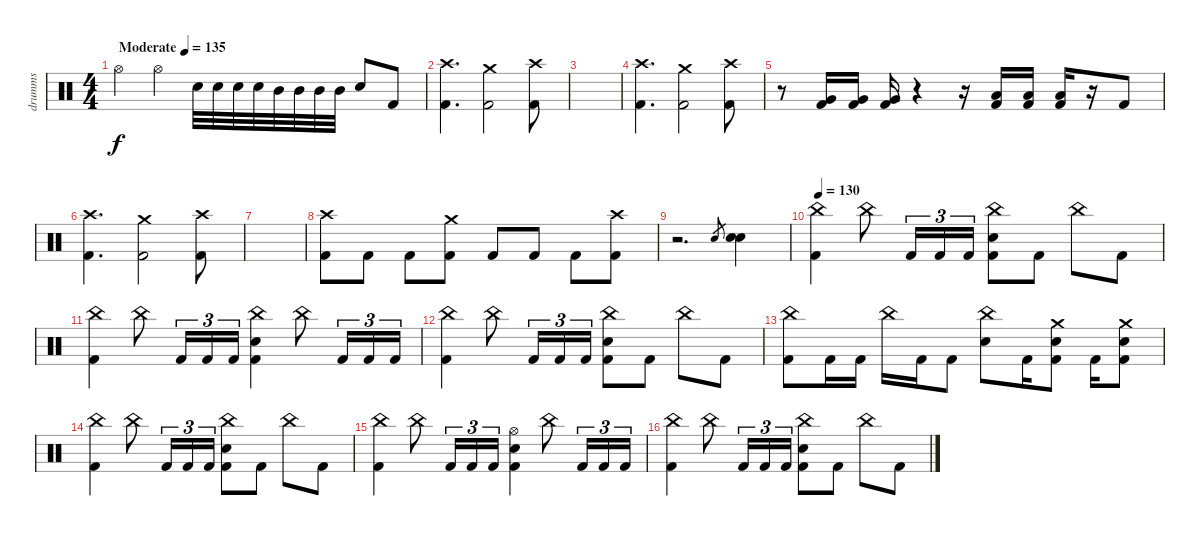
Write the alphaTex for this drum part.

\track ("drumms" "drumms") {instrument percussion}
\staff {score}
\articulation defaults
\ts (4 4)
\tempo (135 "Moderate")
\tempo 131
\tempo (135 "Moderate")
\clef neutral
\ks c "Hi-Hat (open)".4{dy f} "Hi-Hat (open)".4 "Electric Snare (hit)".32 "Electric Snare (hit)".32 "Electric Snare (hit)".32 "Electric Snare (hit)".32 "Mid Tom (hit)".32 "Mid Tom (hit)".32 "Mid Tom (hit)".32 "Mid Tom (hit)".32 "Electric Snare (hit)".8 "Kick (hit) 2".8
|
("Crash high (hit)" "Kick (hit) 2").4{d} ("Crash medium (hit)" "Kick (hit) 2").2 ("Crash high (hit)" "Kick (hit) 2").8 |
|
("Crash high (hit)" "Kick (hit) 2").4{d} ("Crash medium (hit)" "Kick (hit) 2").2 ("Crash high (hit)" "Kick (hit) 2").8 |
r.8 ("Very Low Tom (hit)" "Kick (hit) 2").16 ("Very Low Tom (hit)" "Kick (hit) 2").16 ("Very Low Tom (hit)" "Kick (hit) 2").16 r.4 r.16 ("Low Floor Tom (hit)" "Kick (hit) 2").16 ("Low Floor Tom (hit)" "Kick (hit) 2").16 ("Low Floor Tom (hit)" "Kick (hit) 2").16 r.16 "Kick (hit) 2".8 |
("Crash high (hit)" "Kick (hit) 2").4{d} ("Crash medium (hit)" "Kick (hit) 2").2 ("Crash high (hit)" "Kick (hit) 2").8 |
|
("Crash high (hit)" "Kick (hit) 2").8 "Kick (hit) 2".8 "Kick (hit) 2".8 ("Crash medium (hit)" "Kick (hit) 2").8 "Kick (hit) 2".8 "Kick (hit) 2".8 "Kick (hit) 2".8 ("Crash high (hit)" "Kick (hit) 2").8 |
r.2{d} "Electric Snare (hit)"{h}.8{gr} ("Electric Snare (hit)" "Electric Snare (hit)").4 |
\tempo 130
("China (hit)" "Kick (hit) 2").4 "China (hit)".8 "Kick (hit) 2".16{tu (3 2)} "Kick (hit) 2".16{tu (3 2)} "Kick (hit) 2".16{tu (3 2)} ("China (hit)" "Electric Snare (hit)" "Kick (hit) 2").8 "Kick (hit) 2".8 "China (hit)".8 "Kick (hit) 2".8 |
("China (hit)" "Kick (hit) 2").4 "China (hit)".8 "Kick (hit) 2".16{tu (3 2)} "Kick (hit) 2".16{tu (3 2)} "Kick (hit) 2".16{tu (3 2)} ("China (hit)" "Electric Snare (hit)" "Kick (hit) 2").4 "China (hit)".8 "Kick (hit) 2".16{tu (3 2)} "Kick (hit) 2".16{tu (3 2)} "Kick (hit) 2".16{tu (3 2)} |
("China (hit)" "Kick (hit) 2").4 "China (hit)".8 "Kick (hit) 2".16{tu (3 2)} "Kick (hit) 2".16{tu (3 2)} "Kick (hit) 2".16{tu (3 2)} ("China (hit)" "Electric Snare (hit)" "Kick (hit) 2").8 "Kick (hit) 2".8 "China (hit)".8 "Kick (hit) 2".8 |
("China (hit)" "Kick (hit) 2").8 "Kick (hit) 2".16 "Kick (hit) 2".16 "China (hit)".16 "Kick (hit) 2".16 "Kick (hit) 2".8 ("China (hit)" "Electric Snare (hit)").8 "Kick (hit) 2".16 ("Crash medium (hit)" "Electric Snare (hit)" "Kick (hit) 2").8 "Kick (hit) 2".16 ("Crash medium (hit)" "Electric Snare (hit)" "Kick (hit) 2").8 |
("China (hit)" "Kick (hit) 2").4 "China (hit)".8 "Kick (hit) 2".16{tu (3 2)} "Kick (hit) 2".16{tu (3 2)} "Kick (hit) 2".16{tu (3 2)} ("China (hit)" "Electric Snare (hit)" "Kick (hit) 2").8 "Kick (hit) 2".8 "China (hit)".8 "Kick (hit) 2".8 |
("China (hit)" "Kick (hit) 2").4 "China (hit)".8 "Kick (hit) 2".16{tu (3 2)} "Kick (hit) 2".16{tu (3 2)} "Kick (hit) 2".16{tu (3 2)} ("Hi-Hat (open)" "Electric Snare (hit)" "Kick (hit) 2").4 "China (hit)".8 "Kick (hit) 2".16{tu (3 2)} "Kick (hit) 2".16{tu (3 2)} "Kick (hit) 2".16{tu (3 2)} |
("China (hit)" "Kick (hit) 2").4 "China (hit)".8 "Kick (hit) 2".16{tu (3 2)} "Kick (hit) 2".16{tu (3 2)} "Kick (hit) 2".16{tu (3 2)} ("China (hit)" "Electric Snare (hit)" "Kick (hit) 2").8 "Kick (hit) 2".8 "China (hit)".8 "Kick (hit) 2".8
